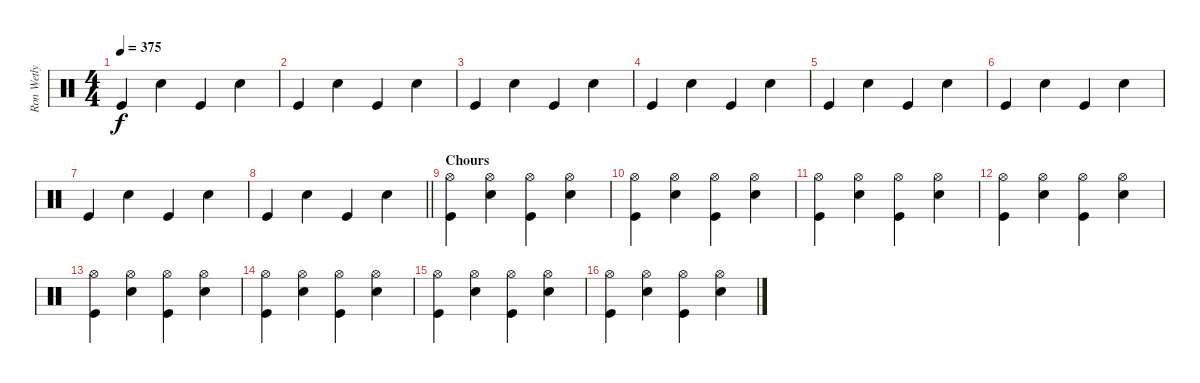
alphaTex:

\track ("Ron Wetly (Drums)" "Ron Wetly ") {instrument percussion}
\staff {score}
\articulation defaults
\ts (4 4)
\tempo 375
\clef neutral
\ks c "Kick (hit)".4{dy f} "Snare (hit) 2".4 "Kick (hit)".4 "Snare (hit) 2".4
|
"Kick (hit)".4 "Snare (hit) 2".4 "Kick (hit)".4 "Snare (hit) 2".4 |
"Kick (hit)".4 "Snare (hit) 2".4 "Kick (hit)".4 "Snare (hit) 2".4 |
"Kick (hit)".4 "Snare (hit) 2".4 "Kick (hit)".4 "Snare (hit) 2".4 |
"Kick (hit)".4 "Snare (hit) 2".4 "Kick (hit)".4 "Snare (hit) 2".4 |
"Kick (hit)".4 "Snare (hit) 2".4 "Kick (hit)".4 "Snare (hit) 2".4 |
"Kick (hit)".4 "Snare (hit) 2".4 "Kick (hit)".4 "Snare (hit) 2".4 |
\barLineRight lightlight "Kick (hit)".4 "Snare (hit) 2".4 "Kick (hit)".4 "Snare (hit) 2".4
|
\section ("" "Chours")
("Hi-Hat (open)" "Kick (hit)").4 ("Hi-Hat (open)" "Snare (hit) 2").4 ("Hi-Hat (open)" "Kick (hit)").4 ("Hi-Hat (open)" "Snare (hit) 2").4 |
("Hi-Hat (open)" "Kick (hit)").4 ("Hi-Hat (open)" "Snare (hit) 2").4 ("Hi-Hat (open)" "Kick (hit)").4 ("Hi-Hat (open)" "Snare (hit) 2").4 |
("Hi-Hat (open)" "Kick (hit)").4 ("Hi-Hat (open)" "Snare (hit) 2").4 ("Hi-Hat (open)" "Kick (hit)").4 ("Hi-Hat (open)" "Snare (hit) 2").4 |
("Hi-Hat (open)" "Kick (hit)").4 ("Hi-Hat (open)" "Snare (hit) 2").4 ("Hi-Hat (open)" "Kick (hit)").4 ("Hi-Hat (open)" "Snare (hit) 2").4 |
("Hi-Hat (open)" "Kick (hit)").4 ("Hi-Hat (open)" "Snare (hit) 2").4 ("Hi-Hat (open)" "Kick (hit)").4 ("Hi-Hat (open)" "Snare (hit) 2").4 |
("Hi-Hat (open)" "Kick (hit)").4 ("Hi-Hat (open)" "Snare (hit) 2").4 ("Hi-Hat (open)" "Kick (hit)").4 ("Hi-Hat (open)" "Snare (hit) 2").4 |
("Hi-Hat (open)" "Kick (hit)").4 ("Hi-Hat (open)" "Snare (hit) 2").4 ("Hi-Hat (open)" "Kick (hit)").4 ("Hi-Hat (open)" "Snare (hit) 2").4 |
("Hi-Hat (open)" "Kick (hit)").4 ("Hi-Hat (open)" "Snare (hit) 2").4 ("Hi-Hat (open)" "Kick (hit)").4 ("Hi-Hat (open)" "Snare (hit) 2").4
